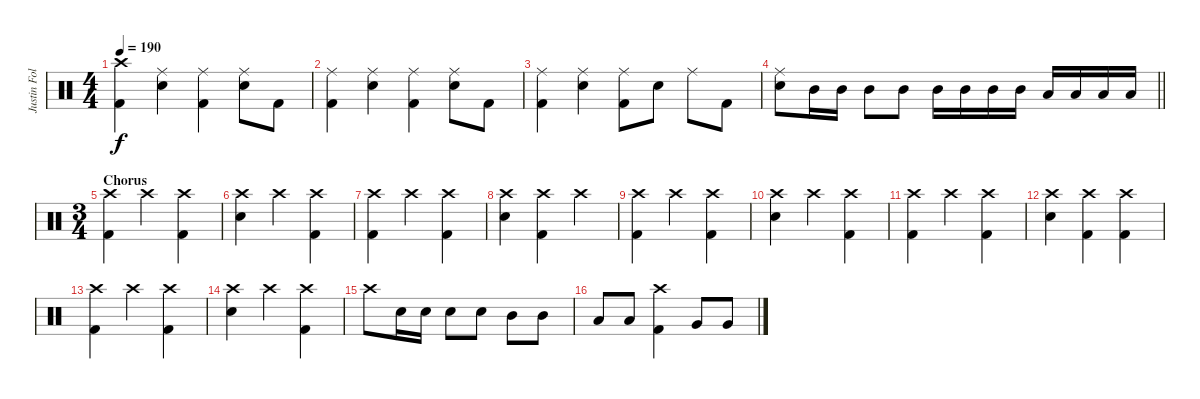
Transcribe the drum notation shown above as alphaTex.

\track ("Justin Foley" "Justin Fol") {instrument percussion}
\staff {score}
\articulation defaults
\ts (4 4)
\tempo 190
\clef neutral
\ks c
("Crash high (hit)" "Kick (hit) 2").4{dy f} ("Ride (middle)" "Electric Snare (hit)").4 ("Ride (middle)" "Kick (hit) 2").4 ("Ride (middle)" "Electric Snare (hit)").8 "Kick (hit) 2".8 |
("Ride (middle)" "Kick (hit) 2").4 ("Ride (middle)" "Electric Snare (hit)").4 ("Ride (middle)" "Kick (hit) 2").4 ("Ride (middle)" "Electric Snare (hit)").8 "Kick (hit) 2".8 |
("Ride (middle)" "Kick (hit) 2").4 ("Ride (middle)" "Electric Snare (hit)").4 ("Ride (middle)" "Kick (hit) 2").8 "Electric Snare (hit)".8 "Ride (middle)".8 "Kick (hit) 2".8 |
\barLineRight lightlight
("Ride (middle)" "Electric Snare (hit)").8 "Mid Tom (hit)".16 "Mid Tom (hit)".16 "Mid Tom (hit)".8 "Mid Tom (hit)".8 "Mid Tom (hit)".16 "Mid Tom (hit)".16 "Mid Tom (hit)".16 "Mid Tom (hit)".16 "Low Tom (hit)".16 "Low Tom (hit)".16 "Low Tom (hit)".16 "Low Tom (hit)".16 |
\ts (3 4)
\section ("" "Chorus")
("Crash high (hit)" "Kick (hit) 2").4 "Crash high (hit)".4 ("Crash high (hit)" "Kick (hit) 2").4 |
("Crash high (hit)" "Electric Snare (hit)").4 "Crash high (hit)".4 ("Crash high (hit)" "Kick (hit) 2").4 |
("Crash high (hit)" "Kick (hit) 2").4 "Crash high (hit)".4 ("Crash high (hit)" "Kick (hit) 2").4 |
("Crash high (hit)" "Electric Snare (hit)").4 ("Crash high (hit)" "Kick (hit) 2").4 "Crash high (hit)".4 |
("Crash high (hit)" "Kick (hit) 2").4 "Crash high (hit)".4 ("Crash high (hit)" "Kick (hit) 2").4 |
("Crash high (hit)" "Electric Snare (hit)").4 "Crash high (hit)".4 ("Crash high (hit)" "Kick (hit) 2").4 |
("Crash high (hit)" "Kick (hit) 2").4 "Crash high (hit)".4 ("Crash high (hit)" "Kick (hit) 2").4 |
("Crash high (hit)" "Electric Snare (hit)").4 ("Crash high (hit)" "Kick (hit) 2").4 ("Crash high (hit)" "Kick (hit) 2").4 |
("Crash high (hit)" "Kick (hit) 2").4 "Crash high (hit)".4 ("Crash high (hit)" "Kick (hit) 2").4 |
("Crash high (hit)" "Electric Snare (hit)").4 "Crash high (hit)".4 ("Crash high (hit)" "Kick (hit) 2").4 |
"Crash high (hit)".8 "Electric Snare (hit)".16 "Electric Snare (hit)".16 "Electric Snare (hit)".8 "Electric Snare (hit)".8 "Mid Tom (hit)".8 "Mid Tom (hit)".8 |
"Low Tom (hit)".8 "Low Tom (hit)".8 ("Crash high (hit)" "Kick (hit) 2").4 "Very Low Tom (hit)".8 "Very Low Tom (hit)".8
